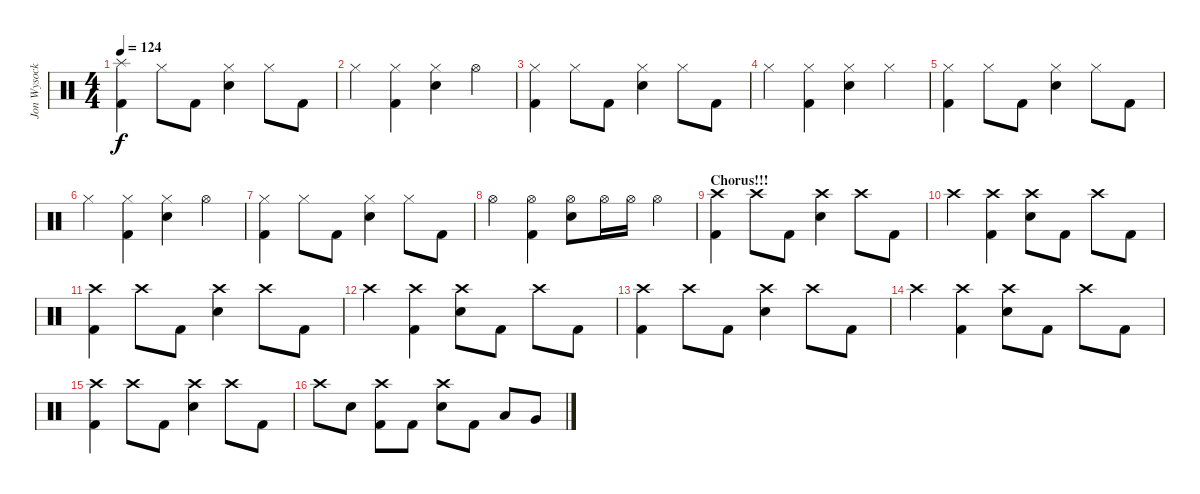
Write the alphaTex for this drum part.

\track ("Jon Wysocki - Drums" "Jon Wysock") {instrument percussion}
\staff {score}
\articulation defaults
\ts (4 4)
\tempo 124
\clef neutral
\ks c
("Splash (hit)" "Kick (hit) 2").4{dy f} "Hi-Hat (closed)".8 "Kick (hit) 2".8 ("Hi-Hat (closed)" "Electric Snare (hit)").4 "Hi-Hat (closed)".8 "Kick (hit) 2".8 |
"Hi-Hat (closed)".4 ("Hi-Hat (closed)" "Kick (hit) 2").4 ("Hi-Hat (closed)" "Electric Snare (hit)").4 "Hi-Hat (open)".4 |
("Hi-Hat (closed)" "Kick (hit) 2").4 "Hi-Hat (closed)".8 "Kick (hit) 2".8 ("Hi-Hat (closed)" "Electric Snare (hit)").4 "Hi-Hat (closed)".8 "Kick (hit) 2".8 |
"Hi-Hat (closed)".4 ("Hi-Hat (closed)" "Kick (hit) 2").4 ("Hi-Hat (closed)" "Electric Snare (hit)").4 "Hi-Hat (closed)".4 |
("Hi-Hat (closed)" "Kick (hit) 2").4 "Hi-Hat (closed)".8 "Kick (hit) 2".8 ("Hi-Hat (closed)" "Electric Snare (hit)").4 "Hi-Hat (closed)".8 "Kick (hit) 2".8 |
"Hi-Hat (closed)".4 ("Hi-Hat (closed)" "Kick (hit) 2").4 ("Hi-Hat (closed)" "Electric Snare (hit)").4 "Hi-Hat (open)".4 |
("Hi-Hat (closed)" "Kick (hit) 2").4 "Hi-Hat (closed)".8 "Kick (hit) 2".8 ("Hi-Hat (closed)" "Electric Snare (hit)").4 "Hi-Hat (closed)".8 "Kick (hit) 2".8 |
"Hi-Hat (open)".4 ("Hi-Hat (open)" "Kick (hit) 2").4 ("Hi-Hat (open)" "Electric Snare (hit)").8 "Hi-Hat (open)".16 "Hi-Hat (open)".16 "Hi-Hat (open)".4 |
\section ("" "Chorus!!!")
("Crash high (hit)" "Kick (hit) 2").4 "Crash high (hit)".8 "Kick (hit) 2".8 ("Crash high (hit)" "Electric Snare (hit)").4 "Crash high (hit)".8 "Kick (hit) 2".8 |
"Crash high (hit)".4 ("Crash high (hit)" "Kick (hit) 2").4 ("Crash high (hit)" "Electric Snare (hit)").8 "Kick (hit) 2".8 "Crash high (hit)".8 "Kick (hit) 2".8 |
("Crash high (hit)" "Kick (hit) 2").4 "Crash high (hit)".8 "Kick (hit) 2".8 ("Crash high (hit)" "Electric Snare (hit)").4 "Crash high (hit)".8 "Kick (hit) 2".8 |
"Crash high (hit)".4 ("Crash high (hit)" "Kick (hit) 2").4 ("Crash high (hit)" "Electric Snare (hit)").8 "Kick (hit) 2".8 "Crash high (hit)".8 "Kick (hit) 2".8 |
("Crash high (hit)" "Kick (hit) 2").4 "Crash high (hit)".8 "Kick (hit) 2".8 ("Crash high (hit)" "Electric Snare (hit)").4 "Crash high (hit)".8 "Kick (hit) 2".8 |
"Crash high (hit)".4 ("Crash high (hit)" "Kick (hit) 2").4 ("Crash high (hit)" "Electric Snare (hit)").8 "Kick (hit) 2".8 "Crash high (hit)".8 "Kick (hit) 2".8 |
("Crash high (hit)" "Kick (hit) 2").4 "Crash high (hit)".8 "Kick (hit) 2".8 ("Crash high (hit)" "Electric Snare (hit)").4 "Crash high (hit)".8 "Kick (hit) 2".8 |
"Crash high (hit)".8 "Electric Snare (hit)".8 ("Crash high (hit)" "Kick (hit) 2").8 "Kick (hit) 2".8 ("Crash high (hit)" "Electric Snare (hit)").8 "Kick (hit) 2".8 "Low Tom (hit)".8 "Very Low Tom (hit)".8
